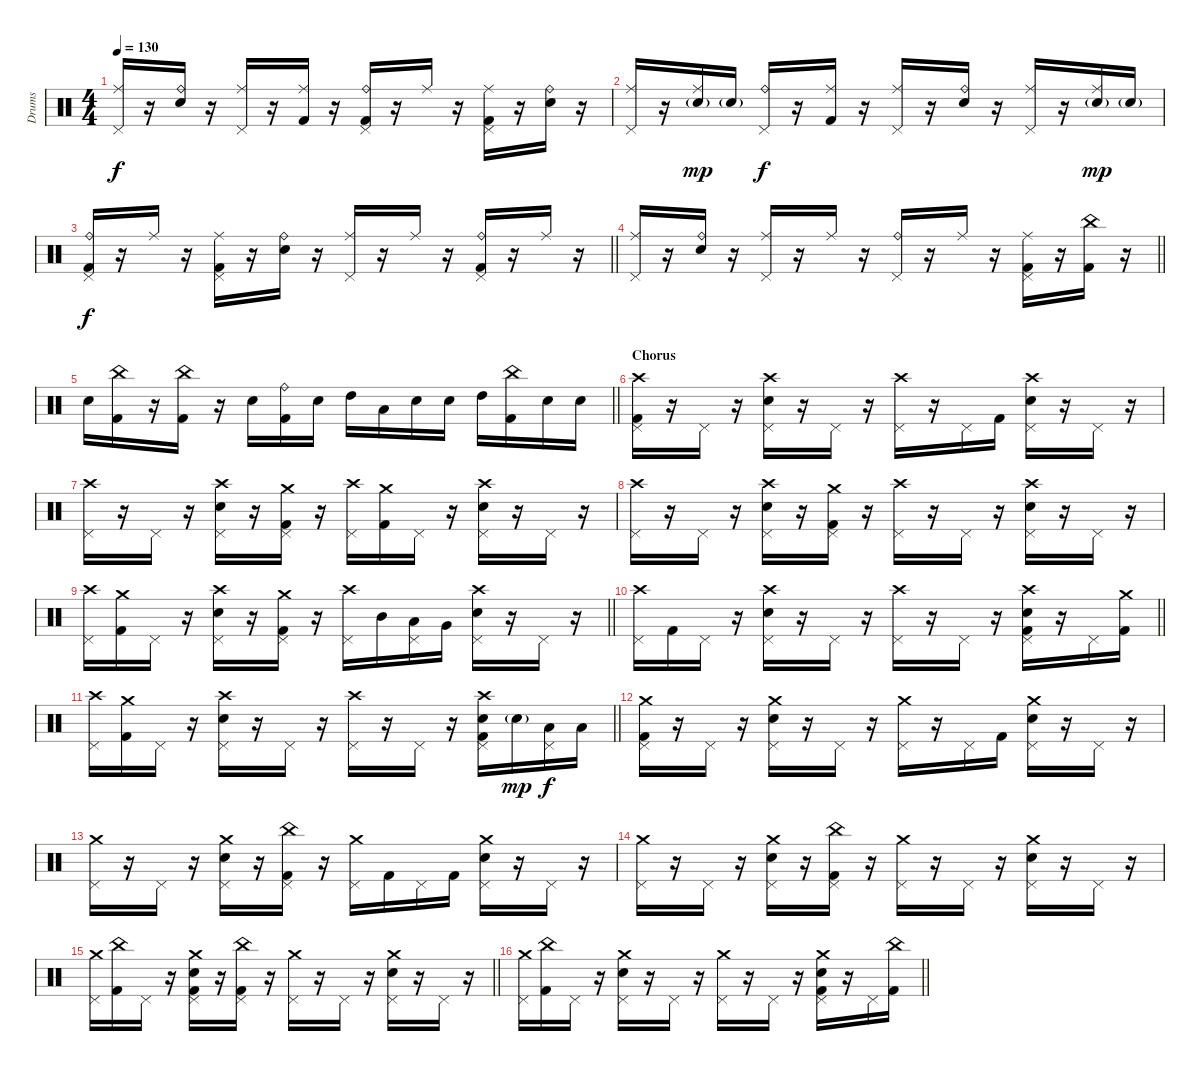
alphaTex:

\track ("Drums" "Drums") {instrument percussion}
\staff {score}
\articulation defaults
\ts (4 4)
\tempo 130
\clef neutral
\ks c
("Ride (middle)" "Pedal Hi-Hat (hit)").16{dy f} r.16 ("Ride (bell)" "Electric Snare (hit)").16 r.16 ("Ride (middle)" "Pedal Hi-Hat (hit)").16 r.16 ("Ride (middle)" "Kick (hit) 2").16 r.16 ("Ride (bell)" "Pedal Hi-Hat (hit)" "Kick (hit) 2").16 r.16 "Ride (middle)".16 r.16 ("Ride (middle)" "Pedal Hi-Hat (hit)" "Kick (hit) 2").16 r.16 ("Ride (bell)" "Electric Snare (hit)").16 r.16 |
("Ride (middle)" "Pedal Hi-Hat (hit)").16 r.16 ("Ride (middle)" "Electric Snare (hit)"{g}).16{dy mp} "Electric Snare (hit)"{g}.16 ("Ride (bell)" "Pedal Hi-Hat (hit)").16{dy f} r.16 ("Ride (middle)" "Kick (hit) 2").16 r.16 ("Ride (middle)" "Pedal Hi-Hat (hit)").16 r.16 ("Ride (bell)" "Electric Snare (hit)").16 r.16 ("Ride (middle)" "Pedal Hi-Hat (hit)").16 r.16 ("Ride (middle)" "Electric Snare (hit)"{g}).16{dy mp} "Electric Snare (hit)"{g}.16 |
\barLineRight lightlight
("Ride (bell)" "Pedal Hi-Hat (hit)" "Kick (hit) 2").16{dy f} r.16 "Ride (middle)".16 r.16 ("Ride (middle)" "Pedal Hi-Hat (hit)" "Kick (hit) 2").16 r.16 ("Ride (bell)" "Electric Snare (hit)").16 r.16 ("Ride (middle)" "Pedal Hi-Hat (hit)").16 r.16 "Ride (middle)".16 r.16 ("Ride (bell)" "Pedal Hi-Hat (hit)" "Kick (hit) 2").16 r.16 "Ride (middle)".16 r.16 |
\barLineRight lightlight
("Ride (middle)" "Pedal Hi-Hat (hit)").16 r.16 ("Ride (bell)" "Electric Snare (hit)").16 r.16 ("Ride (middle)" "Pedal Hi-Hat (hit)").16 r.16 "Ride (middle)".16 r.16 ("Ride (bell)" "Pedal Hi-Hat (hit)").16 r.16 "Ride (middle)".16 r.16 ("Ride (middle)" "Pedal Hi-Hat (hit)" "Kick (hit) 2").16 r.16 ("China (hit)" "Kick (hit) 2").16 r.16 |
\barLineRight lightlight "Electric Snare (hit)".16
("China (hit)" "Kick (hit) 2").16 r.16 ("China (hit)" "Kick (hit) 2").16 r.16 "Electric Snare (hit)".16 ("Ride (bell)" "Kick (hit) 2").16 "Electric Snare (hit)".16 "High Tom (hit)".16 "Low Tom (hit)".16 "Electric Snare (hit)".16 "Electric Snare (hit)".16 "High Tom (hit)".16 ("China (hit)" "Kick (hit) 2").16 "Electric Snare (hit)".16 "Electric Snare (hit)".16 |
\section ("" "Chorus")
("Crash high (hit)" "Pedal Hi-Hat (hit)" "Kick (hit) 2").16 r.16 "Pedal Hi-Hat (hit)".16 r.16 ("Crash high (hit)" "Pedal Hi-Hat (hit)" "Electric Snare (hit)").16 r.16 "Pedal Hi-Hat (hit)".16 r.16 ("Crash high (hit)" "Pedal Hi-Hat (hit)").16 r.16 "Pedal Hi-Hat (hit)".16 "Kick (hit) 2".16 ("Crash high (hit)" "Pedal Hi-Hat (hit)" "Electric Snare (hit)").16 r.16 "Pedal Hi-Hat (hit)".16 r.16 |
("Crash high (hit)" "Pedal Hi-Hat (hit)").16 r.16 "Pedal Hi-Hat (hit)".16 r.16 ("Crash high (hit)" "Pedal Hi-Hat (hit)" "Electric Snare (hit)").16 r.16 ("Crash medium (hit)" "Pedal Hi-Hat (hit)" "Kick (hit) 2").16 r.16 ("Crash high (hit)" "Pedal Hi-Hat (hit)").16 ("Crash medium (hit)" "Kick (hit) 2").16 "Pedal Hi-Hat (hit)".16 r.16 ("Crash high (hit)" "Pedal Hi-Hat (hit)" "Electric Snare (hit)").16 r.16 "Pedal Hi-Hat (hit)".16 r.16 |
("Crash high (hit)" "Pedal Hi-Hat (hit)").16 r.16 "Pedal Hi-Hat (hit)".16 r.16 ("Crash high (hit)" "Pedal Hi-Hat (hit)" "Electric Snare (hit)").16 r.16 ("Crash medium (hit)" "Pedal Hi-Hat (hit)" "Kick (hit) 2").16 r.16 ("Crash high (hit)" "Pedal Hi-Hat (hit)").16 r.16 "Pedal Hi-Hat (hit)".16 r.16 ("Crash high (hit)" "Pedal Hi-Hat (hit)" "Electric Snare (hit)").16 r.16 "Pedal Hi-Hat (hit)".16 r.16 |
\barLineRight lightlight
("Crash high (hit)" "Pedal Hi-Hat (hit)").16 ("Crash medium (hit)" "Kick (hit) 2").16 "Pedal Hi-Hat (hit)".16 r.16 ("Crash high (hit)" "Pedal Hi-Hat (hit)" "Electric Snare (hit)").16 r.16 ("Crash medium (hit)" "Pedal Hi-Hat (hit)" "Kick (hit) 2").16 r.16 ("Crash high (hit)" "Pedal Hi-Hat (hit)").16 "Mid Tom (hit)".16 ("Pedal Hi-Hat (hit)" "Low Tom (hit)").16 "Very Low Tom (hit)".16 ("Crash high (hit)" "Pedal Hi-Hat (hit)" "Electric Snare (hit)").16 r.16 "Pedal Hi-Hat (hit)".16 r.16 |
\barLineRight lightlight
("Crash high (hit)" "Pedal Hi-Hat (hit)").16 "Kick (hit) 2".16 "Pedal Hi-Hat (hit)".16 r.16 ("Crash high (hit)" "Pedal Hi-Hat (hit)" "Electric Snare (hit)").16 r.16 "Pedal Hi-Hat (hit)".16 r.16 ("Crash high (hit)" "Pedal Hi-Hat (hit)").16 r.16 "Pedal Hi-Hat (hit)".16 r.16 ("Crash high (hit)" "Pedal Hi-Hat (hit)" "Electric Snare (hit)" "Kick (hit) 2").16 r.16 "Pedal Hi-Hat (hit)".16 ("Crash medium (hit)" "Kick (hit) 2").16 |
\barLineRight lightlight
("Crash high (hit)" "Pedal Hi-Hat (hit)").16 ("Crash medium (hit)" "Kick (hit) 2").16 "Pedal Hi-Hat (hit)".16 r.16 ("Crash high (hit)" "Pedal Hi-Hat (hit)" "Electric Snare (hit)").16 r.16 "Pedal Hi-Hat (hit)".16 r.16 ("Crash high (hit)" "Pedal Hi-Hat (hit)").16 r.16 "Pedal Hi-Hat (hit)".16 r.16 ("Crash high (hit)" "Pedal Hi-Hat (hit)" "Electric Snare (hit)" "Kick (hit) 2").16 "Electric Snare (hit)"{g}.16{dy mp} ("Pedal Hi-Hat (hit)" "Low Tom (hit)").16{dy f} "Low Tom (hit)".16 |
("Crash medium (hit)" "Pedal Hi-Hat (hit)" "Kick (hit) 2").16 r.16 "Pedal Hi-Hat (hit)".16 r.16 ("Crash medium (hit)" "Pedal Hi-Hat (hit)" "Electric Snare (hit)").16 r.16 "Pedal Hi-Hat (hit)".16 r.16 ("Crash medium (hit)" "Pedal Hi-Hat (hit)").16 r.16 "Pedal Hi-Hat (hit)".16 "Kick (hit) 2".16 ("Crash medium (hit)" "Pedal Hi-Hat (hit)" "Electric Snare (hit)").16 r.16 "Pedal Hi-Hat (hit)".16 r.16 |
("Crash medium (hit)" "Pedal Hi-Hat (hit)").16 r.16 "Pedal Hi-Hat (hit)".16 r.16 ("Crash medium (hit)" "Pedal Hi-Hat (hit)" "Electric Snare (hit)").16 r.16 ("China (hit)" "Pedal Hi-Hat (hit)" "Kick (hit) 2").16 r.16 ("Crash medium (hit)" "Pedal Hi-Hat (hit)").16 "Kick (hit) 2".16 "Pedal Hi-Hat (hit)".16 "Kick (hit) 2".16 ("Crash medium (hit)" "Pedal Hi-Hat (hit)" "Electric Snare (hit)").16 r.16 "Pedal Hi-Hat (hit)".16 r.16 |
("Crash medium (hit)" "Pedal Hi-Hat (hit)").16 r.16 "Pedal Hi-Hat (hit)".16 r.16 ("Crash medium (hit)" "Pedal Hi-Hat (hit)" "Electric Snare (hit)").16 r.16 ("China (hit)" "Pedal Hi-Hat (hit)" "Kick (hit) 2").16 r.16 ("Crash medium (hit)" "Pedal Hi-Hat (hit)").16 r.16 "Pedal Hi-Hat (hit)".16 r.16 ("Crash medium (hit)" "Pedal Hi-Hat (hit)" "Electric Snare (hit)").16 r.16 "Pedal Hi-Hat (hit)".16 r.16 |
\barLineRight lightlight
("Crash medium (hit)" "Pedal Hi-Hat (hit)").16 ("China (hit)" "Kick (hit) 2").16 "Pedal Hi-Hat (hit)".16 r.16 ("Crash medium (hit)" "Pedal Hi-Hat (hit)" "Electric Snare (hit)" "Kick (hit) 2").16 r.16 ("China (hit)" "Pedal Hi-Hat (hit)" "Kick (hit) 2").16 r.16 ("Crash medium (hit)" "Pedal Hi-Hat (hit)").16 r.16 "Pedal Hi-Hat (hit)".16 r.16 ("Crash medium (hit)" "Pedal Hi-Hat (hit)" "Electric Snare (hit)").16 r.16 "Pedal Hi-Hat (hit)".16 r.16 |
\barLineRight lightlight
("Crash medium (hit)" "Pedal Hi-Hat (hit)").16 ("China (hit)" "Kick (hit) 2").16 "Pedal Hi-Hat (hit)".16 r.16 ("Crash medium (hit)" "Pedal Hi-Hat (hit)" "Electric Snare (hit)").16 r.16 "Pedal Hi-Hat (hit)".16 r.16 ("Crash medium (hit)" "Pedal Hi-Hat (hit)").16 r.16 "Pedal Hi-Hat (hit)".16 r.16 ("Crash medium (hit)" "Pedal Hi-Hat (hit)" "Electric Snare (hit)" "Kick (hit) 2").16 r.16 "Pedal Hi-Hat (hit)".16 ("China (hit)" "Kick (hit) 2").16
